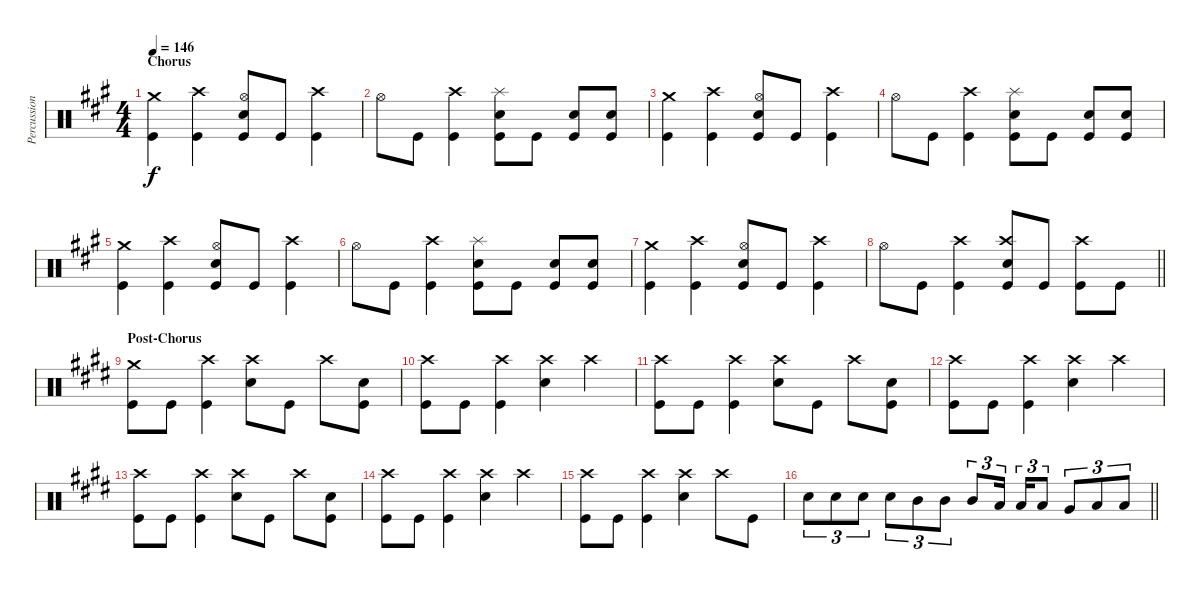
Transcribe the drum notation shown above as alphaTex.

\track ("Percussion" "Percussion") {instrument percussion}
\staff {score}
\articulation defaults
\ts (4 4)
\section ("" "Chorus")
\tempo 146
\clef neutral
\ks a
("Crash medium (hit)" "Kick (hit)").4{dy f} ("Crash high (hit)" "Kick (hit)").4 ("Hi-Hat (open)" "Electric Snare (hit)" "Kick (hit)").8 "Kick (hit)".8 ("Crash high (hit)" "Kick (hit)").4 |
"Hi-Hat (open)".8 "Kick (hit)".8 ("Crash high (hit)" "Kick (hit)").4 ("Splash (hit)" "Electric Snare (hit)" "Kick (hit)").8 "Kick (hit)".8 ("Electric Snare (hit)" "Kick (hit)").8 ("Electric Snare (hit)" "Kick (hit)").8 |
("Crash medium (hit)" "Kick (hit)").4 ("Crash high (hit)" "Kick (hit)").4 ("Hi-Hat (open)" "Electric Snare (hit)" "Kick (hit)").8 "Kick (hit)".8 ("Crash high (hit)" "Kick (hit)").4 |
"Hi-Hat (open)".8 "Kick (hit)".8 ("Crash high (hit)" "Kick (hit)").4 ("Splash (hit)" "Electric Snare (hit)" "Kick (hit)").8 "Kick (hit)".8 ("Electric Snare (hit)" "Kick (hit)").8 ("Electric Snare (hit)" "Kick (hit)").8 |
("Crash medium (hit)" "Kick (hit)").4 ("Crash high (hit)" "Kick (hit)").4 ("Hi-Hat (open)" "Electric Snare (hit)" "Kick (hit)").8 "Kick (hit)".8 ("Crash high (hit)" "Kick (hit)").4 |
"Hi-Hat (open)".8 "Kick (hit)".8 ("Crash high (hit)" "Kick (hit)").4 ("Splash (hit)" "Electric Snare (hit)" "Kick (hit)").8 "Kick (hit)".8 ("Electric Snare (hit)" "Kick (hit)").8 ("Electric Snare (hit)" "Kick (hit)").8 |
("Crash medium (hit)" "Kick (hit)").4 ("Crash high (hit)" "Kick (hit)").4 ("Hi-Hat (open)" "Electric Snare (hit)" "Kick (hit)").8 "Kick (hit)".8 ("Crash high (hit)" "Kick (hit)").4 |
\barLineRight lightlight "Hi-Hat (open)".8 "Kick (hit)".8
("Crash high (hit)" "Kick (hit)").4 ("Crash high (hit)" "Electric Snare (hit)" "Kick (hit)").8 "Kick (hit)".8 ("Crash high (hit)" "Kick (hit)").8 "Kick (hit)".8 |
\section ("" "Post-Chorus")
\ks e
("Crash medium (hit)" "Kick (hit)").8 "Kick (hit)".8 ("Crash high (hit)" "Kick (hit)").4 ("Crash high (hit)" "Electric Snare (hit)").8 "Kick (hit)".8 "Crash high (hit)".8 ("Electric Snare (hit)" "Kick (hit)").8 |
("Crash high (hit)" "Kick (hit)").8 "Kick (hit)".8 ("Crash high (hit)" "Kick (hit)").4 ("Crash high (hit)" "Electric Snare (hit)").4 "Crash high (hit)".4 |
("Crash high (hit)" "Kick (hit)").8 "Kick (hit)".8 ("Crash high (hit)" "Kick (hit)").4 ("Crash high (hit)" "Electric Snare (hit)").8 "Kick (hit)".8 "Crash high (hit)".8 ("Electric Snare (hit)" "Kick (hit)").8 |
("Crash high (hit)" "Kick (hit)").8 "Kick (hit)".8 ("Crash high (hit)" "Kick (hit)").4 ("Crash high (hit)" "Electric Snare (hit)").4 "Crash high (hit)".4 |
("Crash high (hit)" "Kick (hit)").8 "Kick (hit)".8 ("Crash high (hit)" "Kick (hit)").4 ("Crash high (hit)" "Electric Snare (hit)").8 "Kick (hit)".8 "Crash high (hit)".8 ("Electric Snare (hit)" "Kick (hit)").8 |
("Crash high (hit)" "Kick (hit)").8 "Kick (hit)".8 ("Crash high (hit)" "Kick (hit)").4 ("Crash high (hit)" "Electric Snare (hit)").4 "Crash high (hit)".4 |
("Crash high (hit)" "Kick (hit)").8 "Kick (hit)".8 ("Crash high (hit)" "Kick (hit)").4 ("Crash high (hit)" "Electric Snare (hit)").4 "Crash high (hit)".8 "Kick (hit)".8 |
\barLineRight lightlight "Electric Snare (hit)".8{tu (3 2)} "Electric Snare (hit)".8{tu (3 2)} "Electric Snare (hit)".8{tu (3 2)} "Electric Snare (hit)".8{tu (3 2)} "Mid Tom (hit)".8{tu (3 2)} "Mid Tom (hit)".8{tu (3 2)} "Mid Tom (hit)".8{tu (3 2)} "Low Tom (hit)".16{tu (3 2) beam splitsecondary} "Low Tom (hit)".16{tu (3 2)} "Low Tom (hit)".8{tu (3 2)} "Very Low Tom (hit)".8{tu (3 2)} "Low Floor Tom (hit)".8{tu (3 2)} "Low Floor Tom (hit)".8{tu (3 2)}
